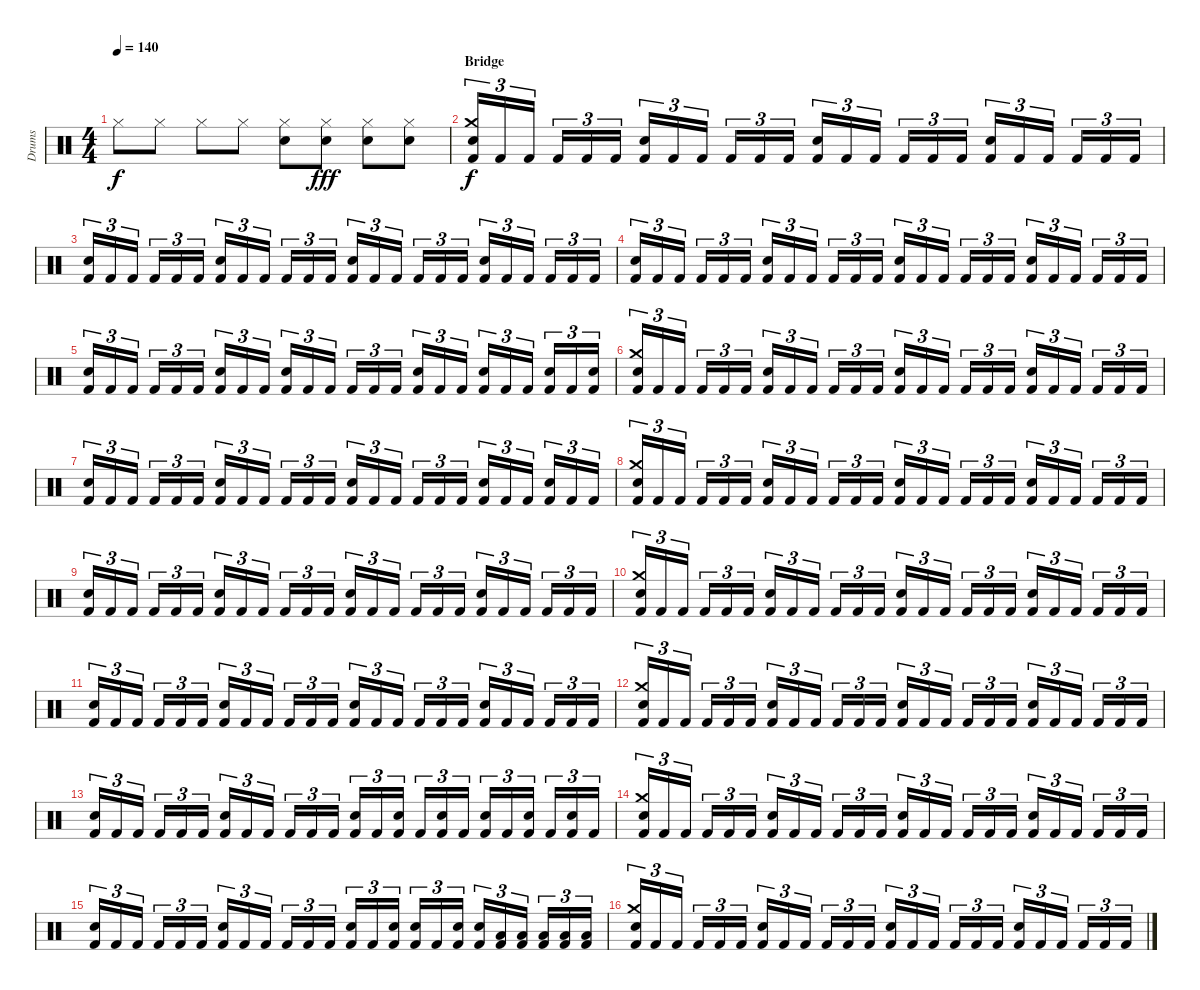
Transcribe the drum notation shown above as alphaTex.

\track ("Drums" "Drums") {instrument percussion}
\staff {score}
\articulation defaults
\ts (4 4)
\tempo 140
\clef neutral
\ks c "Hi-Hat (closed)".8{dy f} "Hi-Hat (closed)".8 "Hi-Hat (closed)".8 "Hi-Hat (closed)".8
("Hi-Hat (closed)" "Snare (hit) 2").8 ("Hi-Hat (closed)" "Snare (hit) 2").8{dy fff} ("Hi-Hat (closed)" "Snare (hit) 2").8 ("Hi-Hat (closed)" "Snare (hit) 2").8 |
\section ("" "Bridge")
("Snare (hit) 2" "Crash medium (hit)" "Kick (hit) 2").16{tu (3 2) dy f} "Kick (hit) 2".16{tu (3 2)} "Kick (hit) 2".16{tu (3 2)} "Kick (hit) 2".16{tu (3 2)} "Kick (hit) 2".16{tu (3 2)} "Kick (hit) 2".16{tu (3 2)} ("Snare (hit) 2" "Kick (hit) 2").16{tu (3 2)} "Kick (hit) 2".16{tu (3 2)} "Kick (hit) 2".16{tu (3 2)} "Kick (hit) 2".16{tu (3 2)} "Kick (hit) 2".16{tu (3 2)} "Kick (hit) 2".16{tu (3 2)} ("Snare (hit) 2" "Kick (hit) 2").16{tu (3 2)} "Kick (hit) 2".16{tu (3 2)} "Kick (hit) 2".16{tu (3 2)} "Kick (hit) 2".16{tu (3 2)} "Kick (hit) 2".16{tu (3 2)} "Kick (hit) 2".16{tu (3 2)} ("Snare (hit) 2" "Kick (hit) 2").16{tu (3 2)} "Kick (hit) 2".16{tu (3 2)} "Kick (hit) 2".16{tu (3 2)} "Kick (hit) 2".16{tu (3 2)} "Kick (hit) 2".16{tu (3 2)} "Kick (hit) 2".16{tu (3 2)} |
("Snare (hit) 2" "Kick (hit) 2").16{tu (3 2)} "Kick (hit) 2".16{tu (3 2)} "Kick (hit) 2".16{tu (3 2)} "Kick (hit) 2".16{tu (3 2)} "Kick (hit) 2".16{tu (3 2)} "Kick (hit) 2".16{tu (3 2)} ("Snare (hit) 2" "Kick (hit) 2").16{tu (3 2)} "Kick (hit) 2".16{tu (3 2)} "Kick (hit) 2".16{tu (3 2)} "Kick (hit) 2".16{tu (3 2)} "Kick (hit) 2".16{tu (3 2)} "Kick (hit) 2".16{tu (3 2)} ("Snare (hit) 2" "Kick (hit) 2").16{tu (3 2)} "Kick (hit) 2".16{tu (3 2)} "Kick (hit) 2".16{tu (3 2)} "Kick (hit) 2".16{tu (3 2)} "Kick (hit) 2".16{tu (3 2)} "Kick (hit) 2".16{tu (3 2)} ("Snare (hit) 2" "Kick (hit) 2").16{tu (3 2)} "Kick (hit) 2".16{tu (3 2)} "Kick (hit) 2".16{tu (3 2)} "Kick (hit) 2".16{tu (3 2)} "Kick (hit) 2".16{tu (3 2)} "Kick (hit) 2".16{tu (3 2)} |
("Snare (hit) 2" "Kick (hit) 2").16{tu (3 2)} "Kick (hit) 2".16{tu (3 2)} "Kick (hit) 2".16{tu (3 2)} "Kick (hit) 2".16{tu (3 2)} "Kick (hit) 2".16{tu (3 2)} "Kick (hit) 2".16{tu (3 2)} ("Snare (hit) 2" "Kick (hit) 2").16{tu (3 2)} "Kick (hit) 2".16{tu (3 2)} "Kick (hit) 2".16{tu (3 2)} "Kick (hit) 2".16{tu (3 2)} "Kick (hit) 2".16{tu (3 2)} "Kick (hit) 2".16{tu (3 2)} ("Snare (hit) 2" "Kick (hit) 2").16{tu (3 2)} "Kick (hit) 2".16{tu (3 2)} "Kick (hit) 2".16{tu (3 2)} "Kick (hit) 2".16{tu (3 2)} "Kick (hit) 2".16{tu (3 2)} "Kick (hit) 2".16{tu (3 2)} ("Snare (hit) 2" "Kick (hit) 2").16{tu (3 2)} "Kick (hit) 2".16{tu (3 2)} "Kick (hit) 2".16{tu (3 2)} "Kick (hit) 2".16{tu (3 2)} "Kick (hit) 2".16{tu (3 2)} "Kick (hit) 2".16{tu (3 2)} |
("Snare (hit) 2" "Kick (hit) 2").16{tu (3 2)} "Kick (hit) 2".16{tu (3 2)} "Kick (hit) 2".16{tu (3 2)} "Kick (hit) 2".16{tu (3 2)} "Kick (hit) 2".16{tu (3 2)} "Kick (hit) 2".16{tu (3 2)} ("Snare (hit) 2" "Kick (hit) 2").16{tu (3 2)} "Kick (hit) 2".16{tu (3 2)} "Kick (hit) 2".16{tu (3 2)} ("Snare (hit) 2" "Kick (hit) 2").16{tu (3 2)} "Kick (hit) 2".16{tu (3 2)} "Kick (hit) 2".16{tu (3 2)} "Kick (hit) 2".16{tu (3 2)} "Kick (hit) 2".16{tu (3 2)} "Kick (hit) 2".16{tu (3 2)} ("Snare (hit) 2" "Kick (hit) 2").16{tu (3 2)} "Kick (hit) 2".16{tu (3 2)} "Kick (hit) 2".16{tu (3 2)} ("Snare (hit) 2" "Kick (hit) 2").16{tu (3 2)} "Kick (hit) 2".16{tu (3 2)} "Kick (hit) 2".16{tu (3 2)} ("Snare (hit) 2" "Kick (hit) 2").16{tu (3 2)} "Kick (hit) 2".16{tu (3 2)} ("Snare (hit) 2" "Kick (hit) 2").16{tu (3 2)} |
("Snare (hit) 2" "Crash medium (hit)" "Kick (hit) 2").16{tu (3 2)} "Kick (hit) 2".16{tu (3 2)} "Kick (hit) 2".16{tu (3 2)} "Kick (hit) 2".16{tu (3 2)} "Kick (hit) 2".16{tu (3 2)} "Kick (hit) 2".16{tu (3 2)} ("Snare (hit) 2" "Kick (hit) 2").16{tu (3 2)} "Kick (hit) 2".16{tu (3 2)} "Kick (hit) 2".16{tu (3 2)} "Kick (hit) 2".16{tu (3 2)} "Kick (hit) 2".16{tu (3 2)} "Kick (hit) 2".16{tu (3 2)} ("Snare (hit) 2" "Kick (hit) 2").16{tu (3 2)} "Kick (hit) 2".16{tu (3 2)} "Kick (hit) 2".16{tu (3 2)} "Kick (hit) 2".16{tu (3 2)} "Kick (hit) 2".16{tu (3 2)} "Kick (hit) 2".16{tu (3 2)} ("Snare (hit) 2" "Kick (hit) 2").16{tu (3 2)} "Kick (hit) 2".16{tu (3 2)} "Kick (hit) 2".16{tu (3 2)} "Kick (hit) 2".16{tu (3 2)} "Kick (hit) 2".16{tu (3 2)} "Kick (hit) 2".16{tu (3 2)} |
("Snare (hit) 2" "Kick (hit) 2").16{tu (3 2)} "Kick (hit) 2".16{tu (3 2)} "Kick (hit) 2".16{tu (3 2)} "Kick (hit) 2".16{tu (3 2)} "Kick (hit) 2".16{tu (3 2)} "Kick (hit) 2".16{tu (3 2)} ("Snare (hit) 2" "Kick (hit) 2").16{tu (3 2)} "Kick (hit) 2".16{tu (3 2)} "Kick (hit) 2".16{tu (3 2)} "Kick (hit) 2".16{tu (3 2)} "Kick (hit) 2".16{tu (3 2)} "Kick (hit) 2".16{tu (3 2)} ("Snare (hit) 2" "Kick (hit) 2").16{tu (3 2)} "Kick (hit) 2".16{tu (3 2)} "Kick (hit) 2".16{tu (3 2)} "Kick (hit) 2".16{tu (3 2)} "Kick (hit) 2".16{tu (3 2)} "Kick (hit) 2".16{tu (3 2)} ("Snare (hit) 2" "Kick (hit) 2").16{tu (3 2)} "Kick (hit) 2".16{tu (3 2)} "Kick (hit) 2".16{tu (3 2)} ("Snare (hit) 2" "Kick (hit) 2").16{tu (3 2)} "Kick (hit) 2".16{tu (3 2)} "Kick (hit) 2".16{tu (3 2)} |
("Snare (hit) 2" "Crash medium (hit)" "Kick (hit) 2").16{tu (3 2)} "Kick (hit) 2".16{tu (3 2)} "Kick (hit) 2".16{tu (3 2)} "Kick (hit) 2".16{tu (3 2)} "Kick (hit) 2".16{tu (3 2)} "Kick (hit) 2".16{tu (3 2)} ("Snare (hit) 2" "Kick (hit) 2").16{tu (3 2)} "Kick (hit) 2".16{tu (3 2)} "Kick (hit) 2".16{tu (3 2)} "Kick (hit) 2".16{tu (3 2)} "Kick (hit) 2".16{tu (3 2)} "Kick (hit) 2".16{tu (3 2)} ("Snare (hit) 2" "Kick (hit) 2").16{tu (3 2)} "Kick (hit) 2".16{tu (3 2)} "Kick (hit) 2".16{tu (3 2)} "Kick (hit) 2".16{tu (3 2)} "Kick (hit) 2".16{tu (3 2)} "Kick (hit) 2".16{tu (3 2)} ("Snare (hit) 2" "Kick (hit) 2").16{tu (3 2)} "Kick (hit) 2".16{tu (3 2)} "Kick (hit) 2".16{tu (3 2)} "Kick (hit) 2".16{tu (3 2)} "Kick (hit) 2".16{tu (3 2)} "Kick (hit) 2".16{tu (3 2)} |
("Snare (hit) 2" "Kick (hit) 2").16{tu (3 2)} "Kick (hit) 2".16{tu (3 2)} "Kick (hit) 2".16{tu (3 2)} "Kick (hit) 2".16{tu (3 2)} "Kick (hit) 2".16{tu (3 2)} "Kick (hit) 2".16{tu (3 2)} ("Snare (hit) 2" "Kick (hit) 2").16{tu (3 2)} "Kick (hit) 2".16{tu (3 2)} "Kick (hit) 2".16{tu (3 2)} "Kick (hit) 2".16{tu (3 2)} "Kick (hit) 2".16{tu (3 2)} "Kick (hit) 2".16{tu (3 2)} ("Snare (hit) 2" "Kick (hit) 2").16{tu (3 2)} "Kick (hit) 2".16{tu (3 2)} "Kick (hit) 2".16{tu (3 2)} "Kick (hit) 2".16{tu (3 2)} "Kick (hit) 2".16{tu (3 2)} "Kick (hit) 2".16{tu (3 2)} ("Snare (hit) 2" "Kick (hit) 2").16{tu (3 2)} "Kick (hit) 2".16{tu (3 2)} "Kick (hit) 2".16{tu (3 2)} "Kick (hit) 2".16{tu (3 2)} "Kick (hit) 2".16{tu (3 2)} "Kick (hit) 2".16{tu (3 2)} |
("Snare (hit) 2" "Crash medium (hit)" "Kick (hit) 2").16{tu (3 2)} "Kick (hit) 2".16{tu (3 2)} "Kick (hit) 2".16{tu (3 2)} "Kick (hit) 2".16{tu (3 2)} "Kick (hit) 2".16{tu (3 2)} "Kick (hit) 2".16{tu (3 2)} ("Snare (hit) 2" "Kick (hit) 2").16{tu (3 2)} "Kick (hit) 2".16{tu (3 2)} "Kick (hit) 2".16{tu (3 2)} "Kick (hit) 2".16{tu (3 2)} "Kick (hit) 2".16{tu (3 2)} "Kick (hit) 2".16{tu (3 2)} ("Snare (hit) 2" "Kick (hit) 2").16{tu (3 2)} "Kick (hit) 2".16{tu (3 2)} "Kick (hit) 2".16{tu (3 2)} "Kick (hit) 2".16{tu (3 2)} "Kick (hit) 2".16{tu (3 2)} "Kick (hit) 2".16{tu (3 2)} ("Snare (hit) 2" "Kick (hit) 2").16{tu (3 2)} "Kick (hit) 2".16{tu (3 2)} "Kick (hit) 2".16{tu (3 2)} "Kick (hit) 2".16{tu (3 2)} "Kick (hit) 2".16{tu (3 2)} "Kick (hit) 2".16{tu (3 2)} |
("Snare (hit) 2" "Kick (hit) 2").16{tu (3 2)} "Kick (hit) 2".16{tu (3 2)} "Kick (hit) 2".16{tu (3 2)} "Kick (hit) 2".16{tu (3 2)} "Kick (hit) 2".16{tu (3 2)} "Kick (hit) 2".16{tu (3 2)} ("Snare (hit) 2" "Kick (hit) 2").16{tu (3 2)} "Kick (hit) 2".16{tu (3 2)} "Kick (hit) 2".16{tu (3 2)} "Kick (hit) 2".16{tu (3 2)} "Kick (hit) 2".16{tu (3 2)} "Kick (hit) 2".16{tu (3 2)} ("Snare (hit) 2" "Kick (hit) 2").16{tu (3 2)} "Kick (hit) 2".16{tu (3 2)} "Kick (hit) 2".16{tu (3 2)} "Kick (hit) 2".16{tu (3 2)} "Kick (hit) 2".16{tu (3 2)} "Kick (hit) 2".16{tu (3 2)} ("Snare (hit) 2" "Kick (hit) 2").16{tu (3 2)} "Kick (hit) 2".16{tu (3 2)} "Kick (hit) 2".16{tu (3 2)} "Kick (hit) 2".16{tu (3 2)} "Kick (hit) 2".16{tu (3 2)} "Kick (hit) 2".16{tu (3 2)} |
("Snare (hit) 2" "Crash medium (hit)" "Kick (hit) 2").16{tu (3 2)} "Kick (hit) 2".16{tu (3 2)} "Kick (hit) 2".16{tu (3 2)} "Kick (hit) 2".16{tu (3 2)} "Kick (hit) 2".16{tu (3 2)} "Kick (hit) 2".16{tu (3 2)} ("Snare (hit) 2" "Kick (hit) 2").16{tu (3 2)} "Kick (hit) 2".16{tu (3 2)} "Kick (hit) 2".16{tu (3 2)} "Kick (hit) 2".16{tu (3 2)} "Kick (hit) 2".16{tu (3 2)} "Kick (hit) 2".16{tu (3 2)} ("Snare (hit) 2" "Kick (hit) 2").16{tu (3 2)} "Kick (hit) 2".16{tu (3 2)} "Kick (hit) 2".16{tu (3 2)} "Kick (hit) 2".16{tu (3 2)} "Kick (hit) 2".16{tu (3 2)} "Kick (hit) 2".16{tu (3 2)} ("Snare (hit) 2" "Kick (hit) 2").16{tu (3 2)} "Kick (hit) 2".16{tu (3 2)} "Kick (hit) 2".16{tu (3 2)} "Kick (hit) 2".16{tu (3 2)} "Kick (hit) 2".16{tu (3 2)} "Kick (hit) 2".16{tu (3 2)} |
("Snare (hit) 2" "Kick (hit) 2").16{tu (3 2)} "Kick (hit) 2".16{tu (3 2)} "Kick (hit) 2".16{tu (3 2)} "Kick (hit) 2".16{tu (3 2)} "Kick (hit) 2".16{tu (3 2)} "Kick (hit) 2".16{tu (3 2)} ("Snare (hit) 2" "Kick (hit) 2").16{tu (3 2)} "Kick (hit) 2".16{tu (3 2)} "Kick (hit) 2".16{tu (3 2)} "Kick (hit) 2".16{tu (3 2)} "Kick (hit) 2".16{tu (3 2)} "Kick (hit) 2".16{tu (3 2)} ("Snare (hit) 2" "Kick (hit) 2").16{tu (3 2)} "Kick (hit) 2".16{tu (3 2)} ("Snare (hit) 2" "Kick (hit) 2").16{tu (3 2)} "Kick (hit) 2".16{tu (3 2)} ("Snare (hit) 2" "Kick (hit) 2").16{tu (3 2)} "Kick (hit) 2".16{tu (3 2)} ("Snare (hit) 2" "Kick (hit) 2").16{tu (3 2)} "Kick (hit) 2".16{tu (3 2)} ("Snare (hit) 2" "Kick (hit) 2").16{tu (3 2)} "Kick (hit) 2".16{tu (3 2)} ("Snare (hit) 2" "Kick (hit) 2").16{tu (3 2)} "Kick (hit) 2".16{tu (3 2)} |
("Snare (hit) 2" "Crash medium (hit)" "Kick (hit) 2").16{tu (3 2)} "Kick (hit) 2".16{tu (3 2)} "Kick (hit) 2".16{tu (3 2)} "Kick (hit) 2".16{tu (3 2)} "Kick (hit) 2".16{tu (3 2)} "Kick (hit) 2".16{tu (3 2)} ("Snare (hit) 2" "Kick (hit) 2").16{tu (3 2)} "Kick (hit) 2".16{tu (3 2)} "Kick (hit) 2".16{tu (3 2)} "Kick (hit) 2".16{tu (3 2)} "Kick (hit) 2".16{tu (3 2)} "Kick (hit) 2".16{tu (3 2)} ("Snare (hit) 2" "Kick (hit) 2").16{tu (3 2)} "Kick (hit) 2".16{tu (3 2)} "Kick (hit) 2".16{tu (3 2)} "Kick (hit) 2".16{tu (3 2)} "Kick (hit) 2".16{tu (3 2)} "Kick (hit) 2".16{tu (3 2)} ("Snare (hit) 2" "Kick (hit) 2").16{tu (3 2)} "Kick (hit) 2".16{tu (3 2)} "Kick (hit) 2".16{tu (3 2)} "Kick (hit) 2".16{tu (3 2)} "Kick (hit) 2".16{tu (3 2)} "Kick (hit) 2".16{tu (3 2)} |
("Snare (hit) 2" "Kick (hit) 2").16{tu (3 2)} "Kick (hit) 2".16{tu (3 2)} "Kick (hit) 2".16{tu (3 2)} "Kick (hit) 2".16{tu (3 2)} "Kick (hit) 2".16{tu (3 2)} "Kick (hit) 2".16{tu (3 2)} ("Snare (hit) 2" "Kick (hit) 2").16{tu (3 2)} "Kick (hit) 2".16{tu (3 2)} "Kick (hit) 2".16{tu (3 2)} "Kick (hit) 2".16{tu (3 2)} "Kick (hit) 2".16{tu (3 2)} "Kick (hit) 2".16{tu (3 2)} ("Snare (hit) 2" "Kick (hit) 2").16{tu (3 2)} "Kick (hit) 2".16{tu (3 2)} ("Snare (hit) 2" "Kick (hit) 2").16{tu (3 2)} ("Snare (hit) 2" "Kick (hit) 2").16{tu (3 2)} "Kick (hit) 2".16{tu (3 2)} ("Snare (hit) 2" "Kick (hit) 2").16{tu (3 2)} ("Snare (hit) 2" "Kick (hit) 2").16{tu (3 2)} ("Low Floor Tom (hit)" "Kick (hit) 2").16{tu (3 2)} ("Low Floor Tom (hit)" "Kick (hit) 2").16{tu (3 2)} ("Low Floor Tom (hit)" "Kick (hit) 2").16{tu (3 2)} ("Low Floor Tom (hit)" "Kick (hit) 2").16{tu (3 2)} ("Low Floor Tom (hit)" "Kick (hit) 2").16{tu (3 2)} |
("Snare (hit) 2" "Crash medium (hit)" "Kick (hit) 2").16{tu (3 2)} "Kick (hit) 2".16{tu (3 2)} "Kick (hit) 2".16{tu (3 2)} "Kick (hit) 2".16{tu (3 2)} "Kick (hit) 2".16{tu (3 2)} "Kick (hit) 2".16{tu (3 2)} ("Snare (hit) 2" "Kick (hit) 2").16{tu (3 2)} "Kick (hit) 2".16{tu (3 2)} "Kick (hit) 2".16{tu (3 2)} "Kick (hit) 2".16{tu (3 2)} "Kick (hit) 2".16{tu (3 2)} "Kick (hit) 2".16{tu (3 2)} ("Snare (hit) 2" "Kick (hit) 2").16{tu (3 2)} "Kick (hit) 2".16{tu (3 2)} "Kick (hit) 2".16{tu (3 2)} "Kick (hit) 2".16{tu (3 2)} "Kick (hit) 2".16{tu (3 2)} "Kick (hit) 2".16{tu (3 2)} ("Snare (hit) 2" "Kick (hit) 2").16{tu (3 2)} "Kick (hit) 2".16{tu (3 2)} "Kick (hit) 2".16{tu (3 2)} "Kick (hit) 2".16{tu (3 2)} "Kick (hit) 2".16{tu (3 2)} "Kick (hit) 2".16{tu (3 2)}
